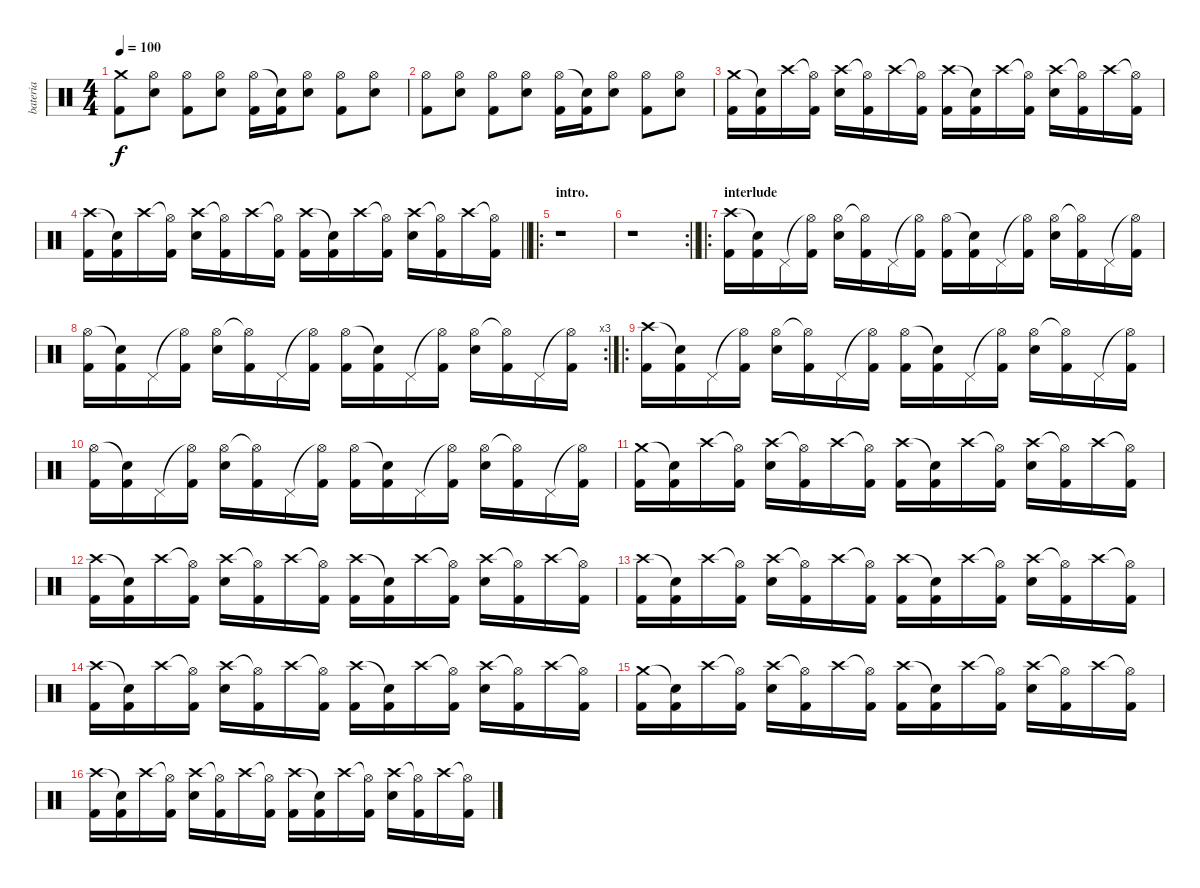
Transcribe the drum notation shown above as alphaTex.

\track ("bateria" "bateria") {instrument percussion}
\staff {score}
\articulation defaults
\ts (4 4)
\tempo 100
\clef neutral
\ks c
("Crash medium (hit)" "Kick (hit) 2").8{dy f} ("Hi-Hat (open)" "Electric Snare (hit)").8 ("Hi-Hat (open)" "Kick (hit) 2").8 ("Hi-Hat (open)" "Electric Snare (hit)").8 ("Hi-Hat (open)" "Kick (hit) 2").16 ("Snare (hit)"{t} "Kick (hit) 2").16 ("Hi-Hat (open)" "Electric Snare (hit)").8 ("Hi-Hat (open)" "Kick (hit) 2").8 ("Hi-Hat (open)" "Electric Snare (hit)").8 |
("Hi-Hat (open)" "Kick (hit) 2").8 ("Hi-Hat (open)" "Electric Snare (hit)").8 ("Hi-Hat (open)" "Kick (hit) 2").8 ("Hi-Hat (open)" "Electric Snare (hit)").8 ("Hi-Hat (open)" "Kick (hit) 2").16 ("Snare (hit)"{t} "Kick (hit) 2").16 ("Hi-Hat (open)" "Electric Snare (hit)").8 ("Hi-Hat (open)" "Kick (hit) 2").8 ("Hi-Hat (open)" "Electric Snare (hit)").8 |
("Crash medium (hit)" "Kick (hit) 2").16 ("Snare (hit)"{t} "Kick (hit) 2").16 "Crash high (hit)".16 ("Hi-Hat (open)"{t} "Kick (hit) 2").16 ("Crash high (hit)" "Electric Snare (hit)").16 ("Hi-Hat (open)"{t} "Kick (hit) 2").16 "Crash high (hit)".16 ("Hi-Hat (open)"{t} "Kick (hit) 2").16 ("Crash high (hit)" "Kick (hit) 2").16 ("Snare (hit)"{t} "Kick (hit) 2").16 "Crash high (hit)".16 ("Hi-Hat (open)"{t} "Kick (hit) 2").16 ("Crash high (hit)" "Electric Snare (hit)").16 ("Hi-Hat (open)"{t} "Kick (hit) 2").16 "Crash high (hit)".16 ("Hi-Hat (open)"{t} "Kick (hit) 2").16 |
\barLineRight lightlight
("Crash high (hit)" "Kick (hit) 2").16 ("Snare (hit)"{t} "Kick (hit) 2").16 "Crash high (hit)".16 ("Hi-Hat (open)"{t} "Kick (hit) 2").16 ("Crash high (hit)" "Electric Snare (hit)").16 ("Hi-Hat (open)"{t} "Kick (hit) 2").16 "Crash high (hit)".16 ("Hi-Hat (open)"{t} "Kick (hit) 2").16 ("Crash high (hit)" "Kick (hit) 2").16 ("Snare (hit)"{t} "Kick (hit) 2").16 "Crash high (hit)".16 ("Hi-Hat (open)"{t} "Kick (hit) 2").16 ("Crash high (hit)" "Electric Snare (hit)").16 ("Hi-Hat (open)"{t} "Kick (hit) 2").16 "Crash high (hit)".16 ("Hi-Hat (open)"{t} "Kick (hit) 2").16 |
\ro
\section ("" "intro.")
r.1 |
\rc 2
\barLineRight lightlight
r.1 |
\ro
\section ("" "interlude")
("Crash high (hit)" "Kick (hit) 2").16 ("Snare (hit)"{t} "Kick (hit) 2").16 "Pedal Hi-Hat (hit)".16 ("Hi-Hat (open)"{t} "Kick (hit) 2").16 ("Hi-Hat (open)" "Electric Snare (hit)").16 ("Hi-Hat (open)"{t} "Kick (hit) 2").16 "Pedal Hi-Hat (hit)".16 ("Hi-Hat (open)"{t} "Kick (hit) 2").16 ("Hi-Hat (open)" "Kick (hit) 2").16 ("Snare (hit)"{t} "Kick (hit) 2").16 "Pedal Hi-Hat (hit)".16 ("Hi-Hat (open)"{t} "Kick (hit) 2").16 ("Hi-Hat (open)" "Electric Snare (hit)").16 ("Hi-Hat (open)"{t} "Kick (hit) 2").16 "Pedal Hi-Hat (hit)".16 ("Hi-Hat (open)"{t} "Kick (hit) 2").16 |
\rc 3
("Hi-Hat (open)" "Kick (hit) 2").16 ("Snare (hit)"{t} "Kick (hit) 2").16 "Pedal Hi-Hat (hit)".16 ("Hi-Hat (open)"{t} "Kick (hit) 2").16 ("Hi-Hat (open)" "Electric Snare (hit)").16 ("Hi-Hat (open)"{t} "Kick (hit) 2").16 "Pedal Hi-Hat (hit)".16 ("Hi-Hat (open)"{t} "Kick (hit) 2").16 ("Hi-Hat (open)" "Kick (hit) 2").16 ("Snare (hit)"{t} "Kick (hit) 2").16 "Pedal Hi-Hat (hit)".16 ("Hi-Hat (open)"{t} "Kick (hit) 2").16 ("Hi-Hat (open)" "Electric Snare (hit)").16 ("Hi-Hat (open)"{t} "Kick (hit) 2").16 "Pedal Hi-Hat (hit)".16 ("Hi-Hat (open)"{t} "Kick (hit) 2").16 |
\ro
("Crash high (hit)" "Kick (hit) 2").16 ("Snare (hit)"{t} "Kick (hit) 2").16 "Pedal Hi-Hat (hit)".16 ("Hi-Hat (open)"{t} "Kick (hit) 2").16 ("Hi-Hat (open)" "Electric Snare (hit)").16 ("Hi-Hat (open)"{t} "Kick (hit) 2").16 "Pedal Hi-Hat (hit)".16 ("Hi-Hat (open)"{t} "Kick (hit) 2").16 ("Hi-Hat (open)" "Kick (hit) 2").16 ("Snare (hit)"{t} "Kick (hit) 2").16 "Pedal Hi-Hat (hit)".16 ("Hi-Hat (open)"{t} "Kick (hit) 2").16 ("Hi-Hat (open)" "Electric Snare (hit)").16 ("Hi-Hat (open)"{t} "Kick (hit) 2").16 "Pedal Hi-Hat (hit)".16 ("Hi-Hat (open)"{t} "Kick (hit) 2").16 |
("Hi-Hat (open)" "Kick (hit) 2").16 ("Snare (hit)"{t} "Kick (hit) 2").16 "Pedal Hi-Hat (hit)".16 ("Hi-Hat (open)"{t} "Kick (hit) 2").16 ("Hi-Hat (open)" "Electric Snare (hit)").16 ("Hi-Hat (open)"{t} "Kick (hit) 2").16 "Pedal Hi-Hat (hit)".16 ("Hi-Hat (open)"{t} "Kick (hit) 2").16 ("Hi-Hat (open)" "Kick (hit) 2").16 ("Snare (hit)"{t} "Kick (hit) 2").16 "Pedal Hi-Hat (hit)".16 ("Hi-Hat (open)"{t} "Kick (hit) 2").16 ("Hi-Hat (open)" "Electric Snare (hit)").16 ("Hi-Hat (open)"{t} "Kick (hit) 2").16 "Pedal Hi-Hat (hit)".16 ("Hi-Hat (open)"{t} "Kick (hit) 2").16 |
("Crash medium (hit)" "Kick (hit) 2").16 ("Snare (hit)"{t} "Kick (hit) 2").16 "Crash high (hit)".16 ("Hi-Hat (open)"{t} "Kick (hit) 2").16 ("Crash high (hit)" "Electric Snare (hit)").16 ("Hi-Hat (open)"{t} "Kick (hit) 2").16 "Crash high (hit)".16 ("Hi-Hat (open)"{t} "Kick (hit) 2").16 ("Crash high (hit)" "Kick (hit) 2").16 ("Snare (hit)"{t} "Kick (hit) 2").16 "Crash high (hit)".16 ("Hi-Hat (open)"{t} "Kick (hit) 2").16 ("Crash high (hit)" "Electric Snare (hit)").16 ("Hi-Hat (open)"{t} "Kick (hit) 2").16 "Crash high (hit)".16 ("Hi-Hat (open)"{t} "Kick (hit) 2").16 |
("Crash high (hit)" "Kick (hit) 2").16 ("Snare (hit)"{t} "Kick (hit) 2").16 "Crash high (hit)".16 ("Hi-Hat (open)"{t} "Kick (hit) 2").16 ("Crash high (hit)" "Electric Snare (hit)").16 ("Hi-Hat (open)"{t} "Kick (hit) 2").16 "Crash high (hit)".16 ("Hi-Hat (open)"{t} "Kick (hit) 2").16 ("Crash high (hit)" "Kick (hit) 2").16 ("Snare (hit)"{t} "Kick (hit) 2").16 "Crash high (hit)".16 ("Hi-Hat (open)"{t} "Kick (hit) 2").16 ("Crash high (hit)" "Electric Snare (hit)").16 ("Hi-Hat (open)"{t} "Kick (hit) 2").16 "Crash high (hit)".16 ("Hi-Hat (open)"{t} "Kick (hit) 2").16 |
("Crash high (hit)" "Kick (hit) 2").16 ("Snare (hit)"{t} "Kick (hit) 2").16 "Crash high (hit)".16 ("Hi-Hat (open)"{t} "Kick (hit) 2").16 ("Crash high (hit)" "Electric Snare (hit)").16 ("Hi-Hat (open)"{t} "Kick (hit) 2").16 "Crash high (hit)".16 ("Hi-Hat (open)"{t} "Kick (hit) 2").16 ("Crash high (hit)" "Kick (hit) 2").16 ("Snare (hit)"{t} "Kick (hit) 2").16 "Crash high (hit)".16 ("Hi-Hat (open)"{t} "Kick (hit) 2").16 ("Crash high (hit)" "Electric Snare (hit)").16 ("Hi-Hat (open)"{t} "Kick (hit) 2").16 "Crash high (hit)".16 ("Hi-Hat (open)"{t} "Kick (hit) 2").16 |
("Crash high (hit)" "Kick (hit) 2").16 ("Snare (hit)"{t} "Kick (hit) 2").16 "Crash high (hit)".16 ("Hi-Hat (open)"{t} "Kick (hit) 2").16 ("Crash high (hit)" "Electric Snare (hit)").16 ("Hi-Hat (open)"{t} "Kick (hit) 2").16 "Crash high (hit)".16 ("Hi-Hat (open)"{t} "Kick (hit) 2").16 ("Crash high (hit)" "Kick (hit) 2").16 ("Snare (hit)"{t} "Kick (hit) 2").16 "Crash high (hit)".16 ("Hi-Hat (open)"{t} "Kick (hit) 2").16 ("Crash high (hit)" "Electric Snare (hit)").16 ("Hi-Hat (open)"{t} "Kick (hit) 2").16 "Crash high (hit)".16 ("Hi-Hat (open)"{t} "Kick (hit) 2").16 |
("Crash medium (hit)" "Kick (hit) 2").16 ("Snare (hit)"{t} "Kick (hit) 2").16 "Crash high (hit)".16 ("Hi-Hat (open)"{t} "Kick (hit) 2").16 ("Crash high (hit)" "Electric Snare (hit)").16 ("Hi-Hat (open)"{t} "Kick (hit) 2").16 "Crash high (hit)".16 ("Hi-Hat (open)"{t} "Kick (hit) 2").16 ("Crash high (hit)" "Kick (hit) 2").16 ("Snare (hit)"{t} "Kick (hit) 2").16 "Crash high (hit)".16 ("Hi-Hat (open)"{t} "Kick (hit) 2").16 ("Crash high (hit)" "Electric Snare (hit)").16 ("Hi-Hat (open)"{t} "Kick (hit) 2").16 "Crash high (hit)".16 ("Hi-Hat (open)"{t} "Kick (hit) 2").16 |
("Crash high (hit)" "Kick (hit) 2").16 ("Snare (hit)"{t} "Kick (hit) 2").16 "Crash high (hit)".16 ("Hi-Hat (open)"{t} "Kick (hit) 2").16 ("Crash high (hit)" "Electric Snare (hit)").16 ("Hi-Hat (open)"{t} "Kick (hit) 2").16 "Crash high (hit)".16 ("Hi-Hat (open)"{t} "Kick (hit) 2").16 ("Crash high (hit)" "Kick (hit) 2").16 ("Snare (hit)"{t} "Kick (hit) 2").16 "Crash high (hit)".16 ("Hi-Hat (open)"{t} "Kick (hit) 2").16 ("Crash high (hit)" "Electric Snare (hit)").16 ("Hi-Hat (open)"{t} "Kick (hit) 2").16 "Crash high (hit)".16 ("Hi-Hat (open)"{t} "Kick (hit) 2").16
